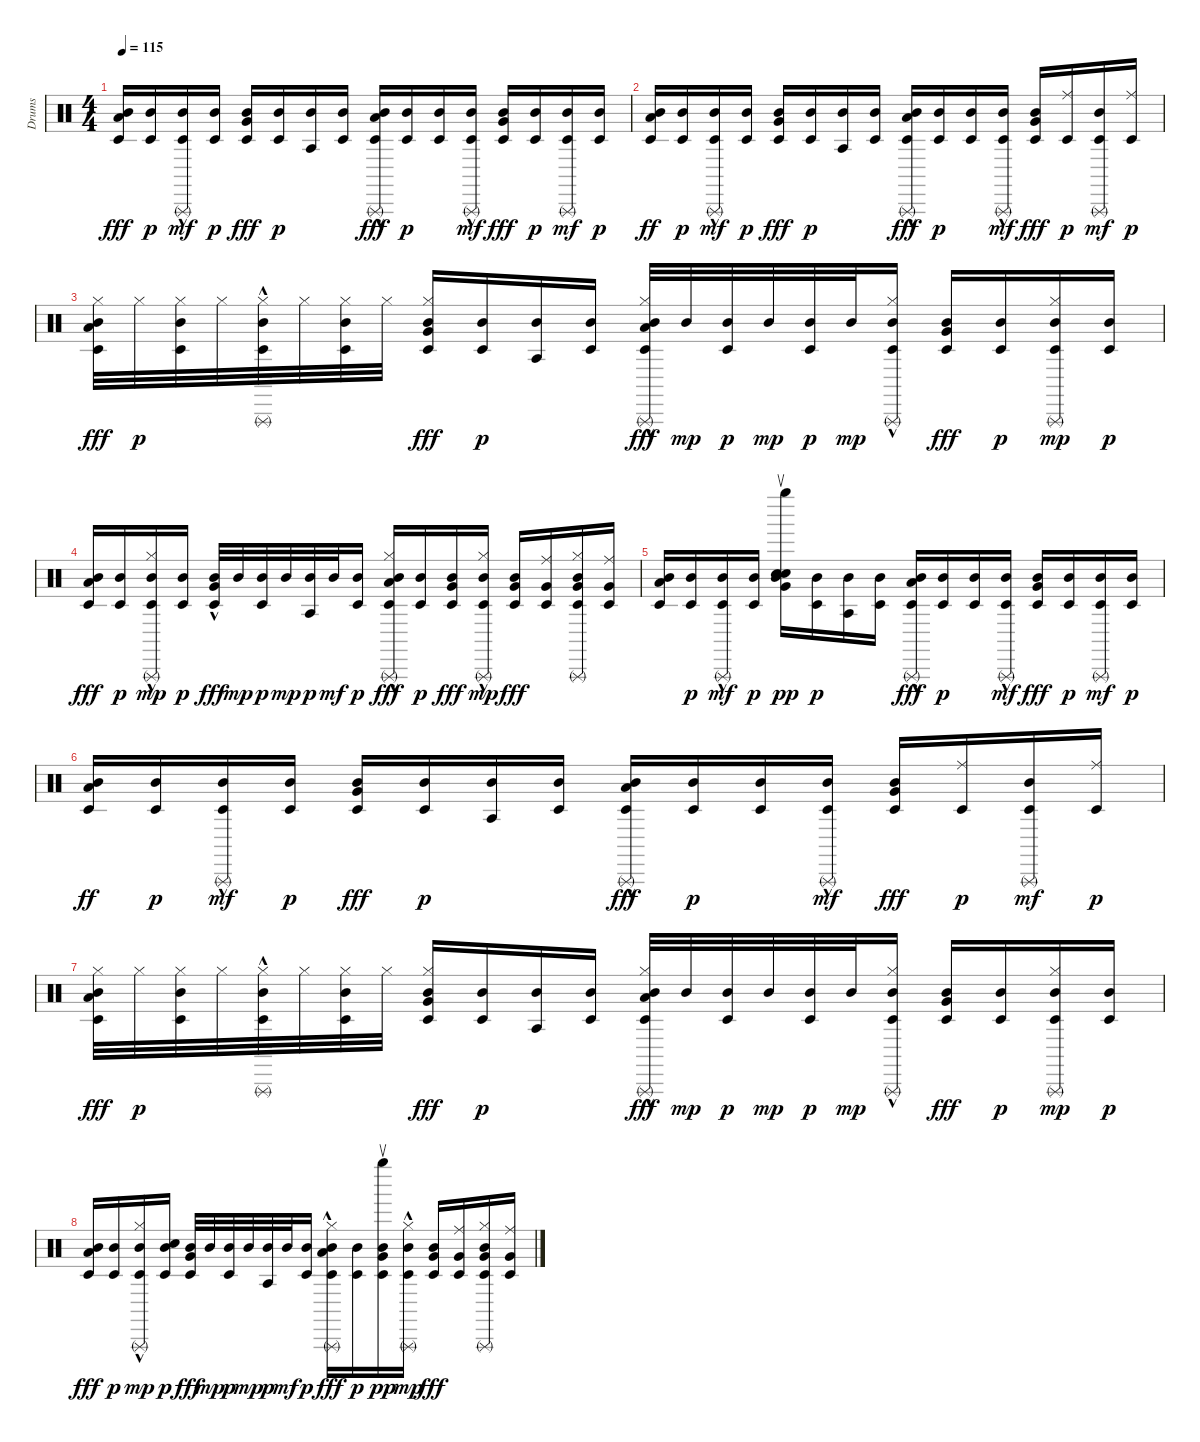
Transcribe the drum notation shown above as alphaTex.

\track ("Drums" "Drums") {instrument percussion}
\staff {score}
\articulation defaults
\ts (4 4)
\tempo 115
\clef neutral
\ks c
("Mid Tom (hit)" "Timbale low (hit)" "Low Floor Tom (hit)").16{dy fff} ("Mid Tom (hit)" "Timbale low (hit)").16{dy p} ("Mid Tom (hit)" "Timbale low (hit)" "Triangle (rnute)"{hac}).16{dy mf} ("Mid Tom (hit)" "Timbale low (hit)").16{dy p} ("Mid Tom (hit)" "Timbale low (hit)" "Very Low Tom (hit)").16{dy fff} ("Mid Tom (hit)" "Timbale low (hit)").16{dy p} ("Mid Tom (hit)" "Agogo tow (hit)").16 ("Mid Tom (hit)" "Timbale low (hit)").16 ("Mid Tom (hit)" "Timbale low (hit)" "Triangle (rnute)"{hac} "Low Floor Tom (hit)").16{dy fff} ("Mid Tom (hit)" "Timbale low (hit)").16{dy p} ("Mid Tom (hit)" "Timbale low (hit)").16 ("Mid Tom (hit)" "Timbale low (hit)" "Triangle (rnute)"{hac}).16{dy mf} ("Mid Tom (hit)" "Timbale low (hit)" "Very Low Tom (hit)").16{dy fff} ("Mid Tom (hit)" "Timbale low (hit)").16{dy p} ("Mid Tom (hit)" "Timbale low (hit)" "Triangle (rnute)").16{dy mf} ("Mid Tom (hit)" "Timbale low (hit)").16{dy p} |
("Mid Tom (hit)" "Timbale low (hit)" "Low Floor Tom (hit)").16{dy ff} ("Mid Tom (hit)" "Timbale low (hit)").16{dy p} ("Mid Tom (hit)" "Timbale low (hit)" "Triangle (rnute)"{hac}).16{dy mf} ("Mid Tom (hit)" "Timbale low (hit)").16{dy p} ("Mid Tom (hit)" "Timbale low (hit)" "Very Low Tom (hit)").16{dy fff} ("Mid Tom (hit)" "Timbale low (hit)").16{dy p} ("Mid Tom (hit)" "Agogo tow (hit)").16 ("Mid Tom (hit)" "Timbale low (hit)").16 ("Mid Tom (hit)" "Timbale low (hit)" "Triangle (rnute)"{hac} "Low Floor Tom (hit)").16{dy fff} ("Mid Tom (hit)" "Timbale low (hit)").16{dy p} ("Mid Tom (hit)" "Timbale low (hit)").16 ("Mid Tom (hit)" "Timbale low (hit)" "Triangle (rnute)"{hac}).16{dy mf} ("Mid Tom (hit)" "Timbale low (hit)" "Very Low Tom (hit)").16{dy fff} ("Ride (middle)" "Timbale low (hit)").16{dy p} ("Mid Tom (hit)" "Timbale low (hit)" "Triangle (rnute)").16{dy mf} ("Ride (middle)" "Timbale low (hit)").16{dy p} |
("Mid Tom (hit)" "Timbale low (hit)" "Hi-Hat (closed)" "Low Floor Tom (hit)").32{dy fff} "Hi-Hat (closed)".32{dy p} ("Mid Tom (hit)" "Timbale low (hit)" "Hi-Hat (closed)").32 "Hi-Hat (closed)".32 ("Mid Tom (hit)" "Timbale low (hit)" "Triangle (rnute)"{hac} "Hi-Hat (closed)").32 "Hi-Hat (closed)".32 ("Mid Tom (hit)" "Timbale low (hit)" "Hi-Hat (closed)").32 "Hi-Hat (closed)".32 ("Mid Tom (hit)" "Timbale low (hit)" "Hi-Hat (closed)" "Very Low Tom (hit)").16{dy fff} ("Mid Tom (hit)" "Timbale low (hit)").16{dy p} ("Mid Tom (hit)" "Agogo tow (hit)").16 ("Mid Tom (hit)" "Timbale low (hit)").16 ("Mid Tom (hit)" "Timbale low (hit)" "Triangle (rnute)"{hac} "Hi-Hat (closed)"{hac} "Low Floor Tom (hit)").32{dy fff} "Mid Tom (hit)".32{dy mp} ("Mid Tom (hit)" "Timbale low (hit)").32{dy p} "Mid Tom (hit)".32{dy mp} ("Mid Tom (hit)" "Timbale low (hit)").32{dy p} "Mid Tom (hit)".32{dy mp} ("Mid Tom (hit)" "Timbale low (hit)" "Triangle (rnute)"{hac} "Hi-Hat (closed)"{hac}).16 ("Mid Tom (hit)" "Timbale low (hit)" "Very Low Tom (hit)").16{dy fff} ("Mid Tom (hit)" "Timbale low (hit)").16{dy p} ("Mid Tom (hit)" "Timbale low (hit)" "Triangle (rnute)" "Hi-Hat (closed)").16{dy mp} ("Mid Tom (hit)" "Timbale low (hit)").16{dy p} |
("Mid Tom (hit)" "Timbale low (hit)" "Low Floor Tom (hit)").16{dy fff} ("Mid Tom (hit)" "Timbale low (hit)").16{dy p} ("Mid Tom (hit)" "Timbale low (hit)" "Triangle (rnute)"{hac} "Hi-Hat (closed)"{hac}).16{dy mp} ("Mid Tom (hit)" "Timbale low (hit)").16{dy p} ("Mid Tom (hit)" "Timbale low (hit)" "Very Low Tom (hit)"{hac}).32{dy fff} "Mid Tom (hit)".32{dy mp} ("Mid Tom (hit)" "Timbale low (hit)").32{dy p} "Mid Tom (hit)".32{dy mp} ("Mid Tom (hit)" "Agogo tow (hit)").32{dy p} "Mid Tom (hit)".32{dy mf} ("Mid Tom (hit)" "Timbale low (hit)").16{dy p} ("Mid Tom (hit)" "Timbale low (hit)" "Triangle (rnute)"{hac} "Hi-Hat (closed)"{hac} "Low Floor Tom (hit)").16{dy fff} ("Mid Tom (hit)" "Timbale low (hit)").16{dy p} ("Mid Tom (hit)" "Timbale low (hit)" "Very Low Tom (hit)").16{dy fff} ("Mid Tom (hit)" "Timbale low (hit)" "Triangle (rnute)"{hac} "Hi-Hat (closed)"{hac}).16{dy mp} ("Mid Tom (hit)" "Timbale low (hit)" "Very Low Tom (hit)").16{dy fff} ("Ride (middle)" "Timbale low (hit)" "Very Low Tom (hit)").16 ("Mid Tom (hit)" "Timbale low (hit)" "Triangle (rnute)" "Hi-Hat (closed)" "Very Low Tom (hit)").16 ("Ride (middle)" "Timbale low (hit)" "Very Low Tom (hit)").16 |
("Mid Tom (hit)" "Timbale low (hit)" "Low Floor Tom (hit)").16 ("Mid Tom (hit)" "Timbale low (hit)").16{dy p} ("Mid Tom (hit)" "Timbale low (hit)" "Triangle (rnute)"{hac}).16{dy mf} ("Mid Tom (hit)" "Timbale low (hit)").16{dy p} ("Very Low Tom (hit)" "Mid Tom (hit)" "Snare (hit)" "Snare (hit)" "Right Maraca (return)").16{dy pp} ("Mid Tom (hit)" "Timbale low (hit)").16{dy p} ("Mid Tom (hit)" "Agogo tow (hit)").16 ("Mid Tom (hit)" "Timbale low (hit)").16 ("Mid Tom (hit)" "Timbale low (hit)" "Triangle (rnute)"{hac} "Low Floor Tom (hit)").16{dy fff} ("Mid Tom (hit)" "Timbale low (hit)").16{dy p} ("Mid Tom (hit)" "Timbale low (hit)").16 ("Mid Tom (hit)" "Timbale low (hit)" "Triangle (rnute)"{hac}).16{dy mf} ("Mid Tom (hit)" "Timbale low (hit)" "Very Low Tom (hit)").16{dy fff} ("Mid Tom (hit)" "Timbale low (hit)").16{dy p} ("Mid Tom (hit)" "Timbale low (hit)" "Triangle (rnute)").16{dy mf} ("Mid Tom (hit)" "Timbale low (hit)").16{dy p} |
("Mid Tom (hit)" "Timbale low (hit)" "Low Floor Tom (hit)").16{dy ff} ("Mid Tom (hit)" "Timbale low (hit)").16{dy p} ("Mid Tom (hit)" "Timbale low (hit)" "Triangle (rnute)"{hac}).16{dy mf} ("Mid Tom (hit)" "Timbale low (hit)").16{dy p} ("Mid Tom (hit)" "Timbale low (hit)" "Very Low Tom (hit)").16{dy fff} ("Mid Tom (hit)" "Timbale low (hit)").16{dy p} ("Mid Tom (hit)" "Agogo tow (hit)").16 ("Mid Tom (hit)" "Timbale low (hit)").16 ("Mid Tom (hit)" "Timbale low (hit)" "Triangle (rnute)"{hac} "Low Floor Tom (hit)").16{dy fff} ("Mid Tom (hit)" "Timbale low (hit)").16{dy p} ("Mid Tom (hit)" "Timbale low (hit)").16 ("Mid Tom (hit)" "Timbale low (hit)" "Triangle (rnute)"{hac}).16{dy mf} ("Mid Tom (hit)" "Timbale low (hit)" "Very Low Tom (hit)").16{dy fff} ("Ride (middle)" "Timbale low (hit)").16{dy p} ("Mid Tom (hit)" "Timbale low (hit)" "Triangle (rnute)").16{dy mf} ("Ride (middle)" "Timbale low (hit)").16{dy p} |
("Mid Tom (hit)" "Timbale low (hit)" "Hi-Hat (closed)" "Low Floor Tom (hit)").32{dy fff} "Hi-Hat (closed)".32{dy p} ("Mid Tom (hit)" "Timbale low (hit)" "Hi-Hat (closed)").32 "Hi-Hat (closed)".32 ("Mid Tom (hit)" "Timbale low (hit)" "Triangle (rnute)"{hac} "Hi-Hat (closed)").32 "Hi-Hat (closed)".32 ("Mid Tom (hit)" "Timbale low (hit)" "Hi-Hat (closed)").32 "Hi-Hat (closed)".32 ("Mid Tom (hit)" "Timbale low (hit)" "Hi-Hat (closed)" "Very Low Tom (hit)").16{dy fff} ("Mid Tom (hit)" "Timbale low (hit)").16{dy p} ("Mid Tom (hit)" "Agogo tow (hit)").16 ("Mid Tom (hit)" "Timbale low (hit)").16 ("Mid Tom (hit)" "Timbale low (hit)" "Triangle (rnute)"{hac} "Hi-Hat (closed)"{hac} "Low Floor Tom (hit)").32{dy fff} "Mid Tom (hit)".32{dy mp} ("Mid Tom (hit)" "Timbale low (hit)").32{dy p} "Mid Tom (hit)".32{dy mp} ("Mid Tom (hit)" "Timbale low (hit)").32{dy p} "Mid Tom (hit)".32{dy mp} ("Mid Tom (hit)" "Timbale low (hit)" "Triangle (rnute)"{hac} "Hi-Hat (closed)"{hac}).16 ("Mid Tom (hit)" "Timbale low (hit)" "Very Low Tom (hit)").16{dy fff} ("Mid Tom (hit)" "Timbale low (hit)").16{dy p} ("Mid Tom (hit)" "Timbale low (hit)" "Triangle (rnute)" "Hi-Hat (closed)").16{dy mp} ("Mid Tom (hit)" "Timbale low (hit)").16{dy p} |
("Mid Tom (hit)" "Timbale low (hit)" "Low Floor Tom (hit)").16{dy fff} ("Mid Tom (hit)" "Timbale low (hit)").16{dy p} ("Mid Tom (hit)" "Timbale low (hit)" "Triangle (rnute)"{hac} "Hi-Hat (closed)"{hac}).16{dy mp} ("Mid Tom (hit)" "Snare (hit)" "Timbale low (hit)").16{dy p} ("Mid Tom (hit)" "Timbale low (hit)" "Very Low Tom (hit)").32{dy fff} "Mid Tom (hit)".32{dy mp} ("Mid Tom (hit)" "Timbale low (hit)").32{dy p} "Mid Tom (hit)".32{dy mp} ("Mid Tom (hit)" "Agogo tow (hit)").32{dy p} "Mid Tom (hit)".32{dy mf} ("Mid Tom (hit)" "Timbale low (hit)").16{dy p} ("Mid Tom (hit)" "Timbale low (hit)" "Triangle (rnute)"{hac} "Hi-Hat (closed)"{hac} "Low Floor Tom (hit)").16{dy fff} ("Mid Tom (hit)" "Timbale low (hit)").16{dy p} ("Mid Tom (hit)" "Timbale low (hit)" "Very Low Tom (hit)" "Right Maraca (return)").16{dy pp} ("Mid Tom (hit)" "Timbale low (hit)" "Triangle (rnute)"{hac} "Hi-Hat (closed)"{hac}).16{dy mp} ("Mid Tom (hit)" "Timbale low (hit)" "Very Low Tom (hit)").16{dy fff} ("Ride (middle)" "Timbale low (hit)" "Very Low Tom (hit)").16 ("Mid Tom (hit)" "Timbale low (hit)" "Triangle (rnute)" "Hi-Hat (closed)" "Very Low Tom (hit)").16 ("Ride (middle)" "Timbale low (hit)" "Very Low Tom (hit)").16
